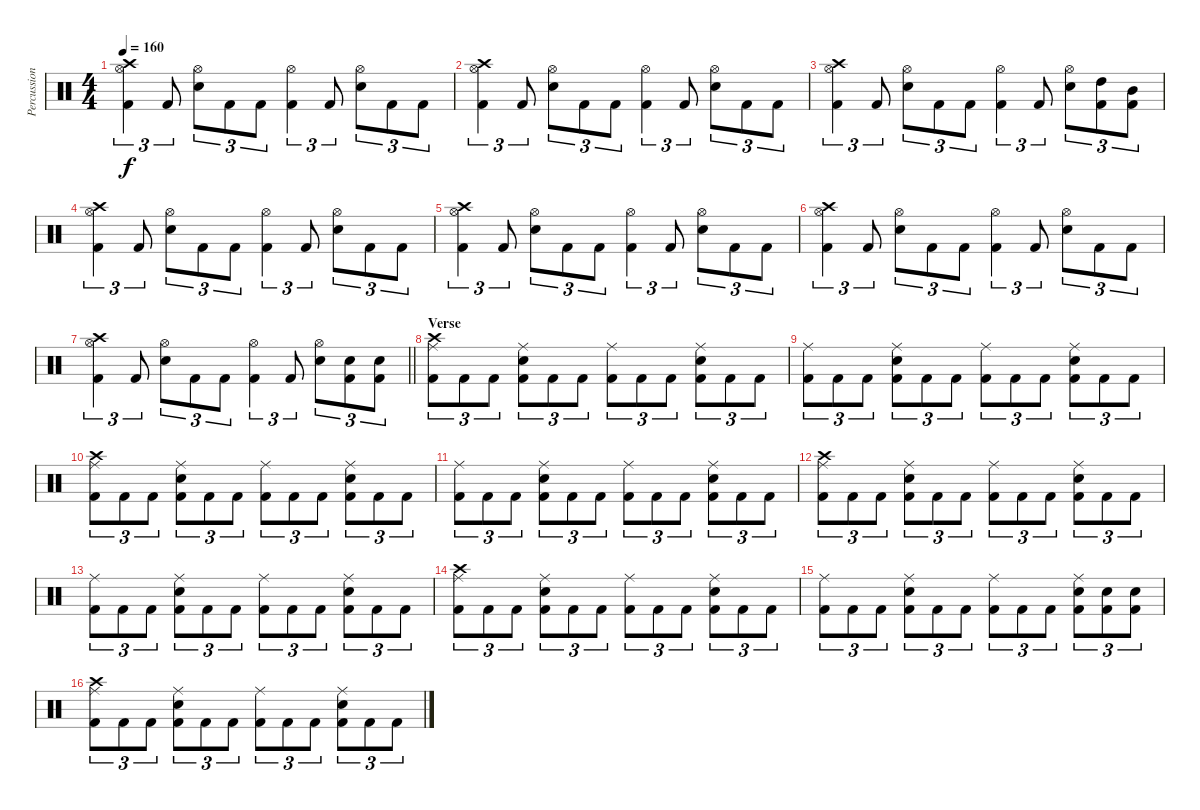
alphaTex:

\track ("Percussion" "Percussion") {instrument percussion}
\staff {score}
\articulation defaults
\ts (4 4)
\tempo 160
\clef neutral
\ks c
("Crash high (hit)" "Hi-Hat (open)" "Kick (hit) 2").4{tu (3 2) dy f} "Kick (hit) 2".8{tu (3 2)} ("Hi-Hat (open)" "Snare (hit) 2").8{tu (3 2)} "Kick (hit) 2".8{tu (3 2)} "Kick (hit) 2".8{tu (3 2)} ("Hi-Hat (open)" "Kick (hit) 2").4{tu (3 2)} "Kick (hit) 2".8{tu (3 2)} ("Hi-Hat (open)" "Snare (hit) 2").8{tu (3 2)} "Kick (hit) 2".8{tu (3 2)} "Kick (hit) 2".8{tu (3 2)} |
("Crash high (hit)" "Hi-Hat (open)" "Kick (hit) 2").4{tu (3 2)} "Kick (hit) 2".8{tu (3 2)} ("Hi-Hat (open)" "Snare (hit) 2").8{tu (3 2)} "Kick (hit) 2".8{tu (3 2)} "Kick (hit) 2".8{tu (3 2)} ("Hi-Hat (open)" "Kick (hit) 2").4{tu (3 2)} "Kick (hit) 2".8{tu (3 2)} ("Hi-Hat (open)" "Snare (hit) 2").8{tu (3 2)} "Kick (hit) 2".8{tu (3 2)} "Kick (hit) 2".8{tu (3 2)} |
("Crash high (hit)" "Hi-Hat (open)" "Kick (hit) 2").4{tu (3 2)} "Kick (hit) 2".8{tu (3 2)} ("Hi-Hat (open)" "Snare (hit) 2").8{tu (3 2)} "Kick (hit) 2".8{tu (3 2)} "Kick (hit) 2".8{tu (3 2)} ("Hi-Hat (open)" "Kick (hit) 2").4{tu (3 2)} "Kick (hit) 2".8{tu (3 2)} ("Hi-Hat (open)" "Snare (hit) 2").8{tu (3 2)} ("High Tom (hit)" "Kick (hit) 2").8{tu (3 2)} ("Mid Tom (hit)" "Kick (hit) 2").8{tu (3 2)} |
("Crash high (hit)" "Hi-Hat (open)" "Kick (hit) 2").4{tu (3 2)} "Kick (hit) 2".8{tu (3 2)} ("Hi-Hat (open)" "Snare (hit) 2").8{tu (3 2)} "Kick (hit) 2".8{tu (3 2)} "Kick (hit) 2".8{tu (3 2)} ("Hi-Hat (open)" "Kick (hit) 2").4{tu (3 2)} "Kick (hit) 2".8{tu (3 2)} ("Hi-Hat (open)" "Snare (hit) 2").8{tu (3 2)} "Kick (hit) 2".8{tu (3 2)} "Kick (hit) 2".8{tu (3 2)} |
("Crash high (hit)" "Hi-Hat (open)" "Kick (hit) 2").4{tu (3 2)} "Kick (hit) 2".8{tu (3 2)} ("Hi-Hat (open)" "Snare (hit) 2").8{tu (3 2)} "Kick (hit) 2".8{tu (3 2)} "Kick (hit) 2".8{tu (3 2)} ("Hi-Hat (open)" "Kick (hit) 2").4{tu (3 2)} "Kick (hit) 2".8{tu (3 2)} ("Hi-Hat (open)" "Snare (hit) 2").8{tu (3 2)} "Kick (hit) 2".8{tu (3 2)} "Kick (hit) 2".8{tu (3 2)} |
("Crash high (hit)" "Hi-Hat (open)" "Kick (hit) 2").4{tu (3 2)} "Kick (hit) 2".8{tu (3 2)} ("Hi-Hat (open)" "Snare (hit) 2").8{tu (3 2)} "Kick (hit) 2".8{tu (3 2)} "Kick (hit) 2".8{tu (3 2)} ("Hi-Hat (open)" "Kick (hit) 2").4{tu (3 2)} "Kick (hit) 2".8{tu (3 2)} ("Hi-Hat (open)" "Snare (hit) 2").8{tu (3 2)} "Kick (hit) 2".8{tu (3 2)} "Kick (hit) 2".8{tu (3 2)} |
\barLineRight lightlight
("Crash high (hit)" "Hi-Hat (open)" "Kick (hit) 2").4{tu (3 2)} "Kick (hit) 2".8{tu (3 2)} ("Hi-Hat (open)" "Snare (hit) 2").8{tu (3 2)} "Kick (hit) 2".8{tu (3 2)} "Kick (hit) 2".8{tu (3 2)} ("Hi-Hat (open)" "Kick (hit) 2").4{tu (3 2)} "Kick (hit) 2".8{tu (3 2)} ("Hi-Hat (open)" "Snare (hit) 2").8{tu (3 2)} ("Snare (hit) 2" "Kick (hit) 2").8{tu (3 2)} ("Snare (hit) 2" "Kick (hit) 2").8{tu (3 2)} |
\section ("" "Verse")
("Crash high (hit)" "Ride (middle)" "Kick (hit) 2").8{tu (3 2)} "Kick (hit) 2".8{tu (3 2)} "Kick (hit) 2".8{tu (3 2)} ("Ride (middle)" "Snare (hit) 2" "Kick (hit) 2").8{tu (3 2)} "Kick (hit) 2".8{tu (3 2)} "Kick (hit) 2".8{tu (3 2)} ("Ride (middle)" "Kick (hit) 2").8{tu (3 2)} "Kick (hit) 2".8{tu (3 2)} "Kick (hit) 2".8{tu (3 2)} ("Ride (middle)" "Snare (hit) 2" "Kick (hit) 2").8{tu (3 2)} "Kick (hit) 2".8{tu (3 2)} "Kick (hit) 2".8{tu (3 2)} |
("Ride (middle)" "Kick (hit) 2").8{tu (3 2)} "Kick (hit) 2".8{tu (3 2)} "Kick (hit) 2".8{tu (3 2)} ("Ride (middle)" "Snare (hit) 2" "Kick (hit) 2").8{tu (3 2)} "Kick (hit) 2".8{tu (3 2)} "Kick (hit) 2".8{tu (3 2)} ("Ride (middle)" "Kick (hit) 2").8{tu (3 2)} "Kick (hit) 2".8{tu (3 2)} "Kick (hit) 2".8{tu (3 2)} ("Ride (middle)" "Snare (hit) 2" "Kick (hit) 2").8{tu (3 2)} "Kick (hit) 2".8{tu (3 2)} "Kick (hit) 2".8{tu (3 2)} |
("Crash high (hit)" "Ride (middle)" "Kick (hit) 2").8{tu (3 2)} "Kick (hit) 2".8{tu (3 2)} "Kick (hit) 2".8{tu (3 2)} ("Ride (middle)" "Snare (hit) 2" "Kick (hit) 2").8{tu (3 2)} "Kick (hit) 2".8{tu (3 2)} "Kick (hit) 2".8{tu (3 2)} ("Ride (middle)" "Kick (hit) 2").8{tu (3 2)} "Kick (hit) 2".8{tu (3 2)} "Kick (hit) 2".8{tu (3 2)} ("Ride (middle)" "Snare (hit) 2" "Kick (hit) 2").8{tu (3 2)} "Kick (hit) 2".8{tu (3 2)} "Kick (hit) 2".8{tu (3 2)} |
("Ride (middle)" "Kick (hit) 2").8{tu (3 2)} "Kick (hit) 2".8{tu (3 2)} "Kick (hit) 2".8{tu (3 2)} ("Ride (middle)" "Snare (hit) 2" "Kick (hit) 2").8{tu (3 2)} "Kick (hit) 2".8{tu (3 2)} "Kick (hit) 2".8{tu (3 2)} ("Ride (middle)" "Kick (hit) 2").8{tu (3 2)} "Kick (hit) 2".8{tu (3 2)} "Kick (hit) 2".8{tu (3 2)} ("Ride (middle)" "Snare (hit) 2" "Kick (hit) 2").8{tu (3 2)} "Kick (hit) 2".8{tu (3 2)} "Kick (hit) 2".8{tu (3 2)} |
("Crash high (hit)" "Ride (middle)" "Kick (hit) 2").8{tu (3 2)} "Kick (hit) 2".8{tu (3 2)} "Kick (hit) 2".8{tu (3 2)} ("Ride (middle)" "Snare (hit) 2" "Kick (hit) 2").8{tu (3 2)} "Kick (hit) 2".8{tu (3 2)} "Kick (hit) 2".8{tu (3 2)} ("Ride (middle)" "Kick (hit) 2").8{tu (3 2)} "Kick (hit) 2".8{tu (3 2)} "Kick (hit) 2".8{tu (3 2)} ("Ride (middle)" "Snare (hit) 2" "Kick (hit) 2").8{tu (3 2)} "Kick (hit) 2".8{tu (3 2)} "Kick (hit) 2".8{tu (3 2)} |
("Ride (middle)" "Kick (hit) 2").8{tu (3 2)} "Kick (hit) 2".8{tu (3 2)} "Kick (hit) 2".8{tu (3 2)} ("Ride (middle)" "Snare (hit) 2" "Kick (hit) 2").8{tu (3 2)} "Kick (hit) 2".8{tu (3 2)} "Kick (hit) 2".8{tu (3 2)} ("Ride (middle)" "Kick (hit) 2").8{tu (3 2)} "Kick (hit) 2".8{tu (3 2)} "Kick (hit) 2".8{tu (3 2)} ("Ride (middle)" "Snare (hit) 2" "Kick (hit) 2").8{tu (3 2)} "Kick (hit) 2".8{tu (3 2)} "Kick (hit) 2".8{tu (3 2)} |
("Crash high (hit)" "Ride (middle)" "Kick (hit) 2").8{tu (3 2)} "Kick (hit) 2".8{tu (3 2)} "Kick (hit) 2".8{tu (3 2)} ("Ride (middle)" "Snare (hit) 2" "Kick (hit) 2").8{tu (3 2)} "Kick (hit) 2".8{tu (3 2)} "Kick (hit) 2".8{tu (3 2)} ("Ride (middle)" "Kick (hit) 2").8{tu (3 2)} "Kick (hit) 2".8{tu (3 2)} "Kick (hit) 2".8{tu (3 2)} ("Ride (middle)" "Snare (hit) 2" "Kick (hit) 2").8{tu (3 2)} "Kick (hit) 2".8{tu (3 2)} "Kick (hit) 2".8{tu (3 2)} |
("Ride (middle)" "Kick (hit) 2").8{tu (3 2)} "Kick (hit) 2".8{tu (3 2)} "Kick (hit) 2".8{tu (3 2)} ("Ride (middle)" "Snare (hit) 2" "Kick (hit) 2").8{tu (3 2)} "Kick (hit) 2".8{tu (3 2)} "Kick (hit) 2".8{tu (3 2)} ("Ride (middle)" "Kick (hit) 2").8{tu (3 2)} "Kick (hit) 2".8{tu (3 2)} "Kick (hit) 2".8{tu (3 2)} ("Ride (middle)" "Snare (hit) 2" "Kick (hit) 2").8{tu (3 2)} ("Snare (hit) 2" "Kick (hit) 2").8{tu (3 2)} ("Snare (hit) 2" "Kick (hit) 2").8{tu (3 2)} |
("Crash high (hit)" "Ride (middle)" "Kick (hit) 2").8{tu (3 2)} "Kick (hit) 2".8{tu (3 2)} "Kick (hit) 2".8{tu (3 2)} ("Ride (middle)" "Snare (hit) 2" "Kick (hit) 2").8{tu (3 2)} "Kick (hit) 2".8{tu (3 2)} "Kick (hit) 2".8{tu (3 2)} ("Ride (middle)" "Kick (hit) 2").8{tu (3 2)} "Kick (hit) 2".8{tu (3 2)} "Kick (hit) 2".8{tu (3 2)} ("Ride (middle)" "Snare (hit) 2" "Kick (hit) 2").8{tu (3 2)} "Kick (hit) 2".8{tu (3 2)} "Kick (hit) 2".8{tu (3 2)}
